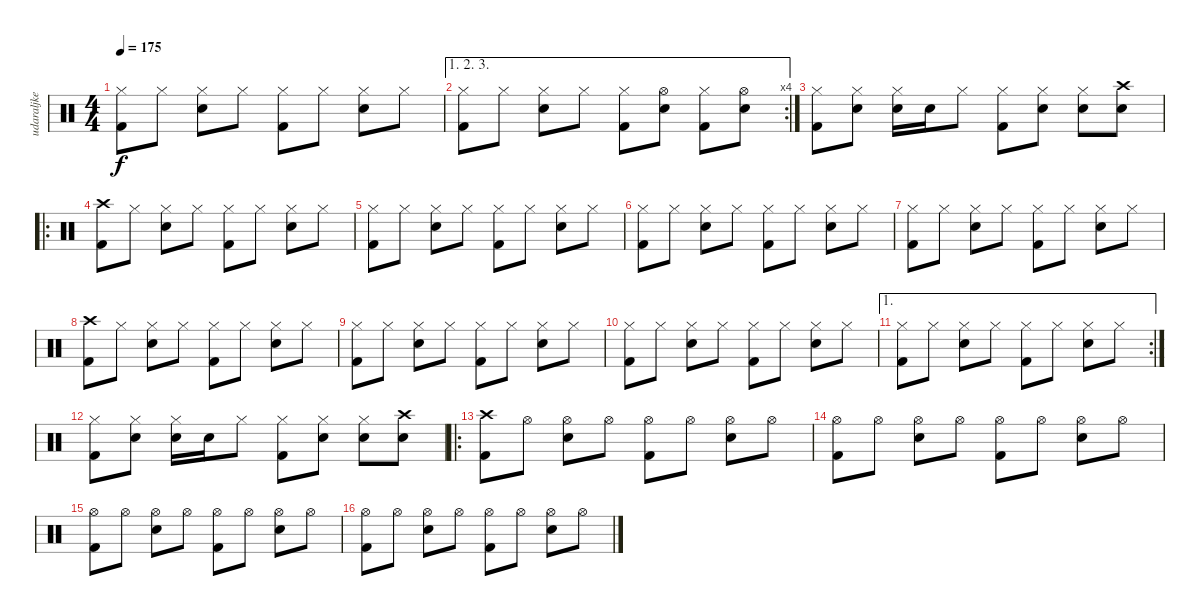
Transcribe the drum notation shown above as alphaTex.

\track ("udaraljke" "udaraljke") {instrument percussion}
\staff {score}
\articulation defaults
\ts (4 4)
\tempo 175
\clef neutral
\ks c
("Hi-Hat (closed)" "Kick (hit) 2").8{dy f} "Hi-Hat (closed)".8 ("Hi-Hat (closed)" "Snare (hit) 2").8 "Hi-Hat (closed)".8 ("Hi-Hat (closed)" "Kick (hit) 2").8 "Hi-Hat (closed)".8 ("Hi-Hat (closed)" "Snare (hit) 2").8 "Hi-Hat (closed)".8 |
\ae (1 2 3)
\rc 4
("Hi-Hat (closed)" "Kick (hit) 2").8 "Hi-Hat (closed)".8 ("Hi-Hat (closed)" "Snare (hit) 2").8 "Hi-Hat (closed)".8 ("Hi-Hat (closed)" "Kick (hit) 2").8 ("Hi-Hat (open)" "Snare (hit) 2").8 ("Hi-Hat (closed)" "Kick (hit) 2").8 ("Hi-Hat (open)" "Snare (hit) 2").8 |
("Hi-Hat (closed)" "Kick (hit) 2").8 ("Hi-Hat (closed)" "Snare (hit) 2").8 ("Hi-Hat (closed)" "Snare (hit) 2").16 "Snare (hit) 2".16 "Hi-Hat (closed)".8 ("Hi-Hat (closed)" "Kick (hit) 2").8 ("Hi-Hat (closed)" "Snare (hit) 2").8 ("Hi-Hat (closed)" "Snare (hit) 2").8 ("Crash high (hit)" "Snare (hit) 2").8 |
\ro
("Crash high (hit)" "Kick (hit) 2").8 "Hi-Hat (closed)".8 ("Hi-Hat (closed)" "Snare (hit) 2").8 "Hi-Hat (closed)".8 ("Hi-Hat (closed)" "Kick (hit) 2").8 "Hi-Hat (closed)".8 ("Hi-Hat (closed)" "Snare (hit) 2").8 "Hi-Hat (closed)".8 |
("Hi-Hat (closed)" "Kick (hit) 2").8 "Hi-Hat (closed)".8 ("Hi-Hat (closed)" "Snare (hit) 2").8 "Hi-Hat (closed)".8 ("Hi-Hat (closed)" "Kick (hit) 2").8 "Hi-Hat (closed)".8 ("Hi-Hat (closed)" "Snare (hit) 2").8 "Hi-Hat (closed)".8 |
("Hi-Hat (closed)" "Kick (hit) 2").8 "Hi-Hat (closed)".8 ("Hi-Hat (closed)" "Snare (hit) 2").8 "Hi-Hat (closed)".8 ("Hi-Hat (closed)" "Kick (hit) 2").8 "Hi-Hat (closed)".8 ("Hi-Hat (closed)" "Snare (hit) 2").8 "Hi-Hat (closed)".8 |
("Hi-Hat (closed)" "Kick (hit) 2").8 "Hi-Hat (closed)".8 ("Hi-Hat (closed)" "Snare (hit) 2").8 "Hi-Hat (closed)".8 ("Hi-Hat (closed)" "Kick (hit) 2").8 "Hi-Hat (closed)".8 ("Hi-Hat (closed)" "Snare (hit) 2").8 "Hi-Hat (closed)".8 |
("Crash high (hit)" "Kick (hit) 2").8 "Hi-Hat (closed)".8 ("Hi-Hat (closed)" "Snare (hit) 2").8 "Hi-Hat (closed)".8 ("Hi-Hat (closed)" "Kick (hit) 2").8 "Hi-Hat (closed)".8 ("Hi-Hat (closed)" "Snare (hit) 2").8 "Hi-Hat (closed)".8 |
("Hi-Hat (closed)" "Kick (hit) 2").8 "Hi-Hat (closed)".8 ("Hi-Hat (closed)" "Snare (hit) 2").8 "Hi-Hat (closed)".8 ("Hi-Hat (closed)" "Kick (hit) 2").8 "Hi-Hat (closed)".8 ("Hi-Hat (closed)" "Snare (hit) 2").8 "Hi-Hat (closed)".8 |
("Hi-Hat (closed)" "Kick (hit) 2").8 "Hi-Hat (closed)".8 ("Hi-Hat (closed)" "Snare (hit) 2").8 "Hi-Hat (closed)".8 ("Hi-Hat (closed)" "Kick (hit) 2").8 "Hi-Hat (closed)".8 ("Hi-Hat (closed)" "Snare (hit) 2").8 "Hi-Hat (closed)".8 |
\ae 1
\rc 2
("Hi-Hat (closed)" "Kick (hit) 2").8 "Hi-Hat (closed)".8 ("Hi-Hat (closed)" "Snare (hit) 2").8 "Hi-Hat (closed)".8 ("Hi-Hat (closed)" "Kick (hit) 2").8 "Hi-Hat (closed)".8 ("Hi-Hat (closed)" "Snare (hit) 2").8 "Hi-Hat (closed)".8 |
("Hi-Hat (closed)" "Kick (hit) 2").8 ("Hi-Hat (closed)" "Snare (hit) 2").8 ("Hi-Hat (closed)" "Snare (hit) 2").16 "Snare (hit) 2".16 "Hi-Hat (closed)".8 ("Hi-Hat (closed)" "Kick (hit) 2").8 ("Hi-Hat (closed)" "Snare (hit) 2").8 ("Hi-Hat (closed)" "Snare (hit) 2").8 ("Crash high (hit)" "Snare (hit) 2").8 |
\ro
("Crash high (hit)" "Kick (hit) 2").8 "Hi-Hat (open)".8 ("Hi-Hat (open)" "Snare (hit) 2").8 "Hi-Hat (open)".8 ("Hi-Hat (open)" "Kick (hit) 2").8 "Hi-Hat (open)".8 ("Hi-Hat (open)" "Snare (hit) 2").8 "Hi-Hat (open)".8 |
("Hi-Hat (open)" "Kick (hit) 2").8 "Hi-Hat (open)".8 ("Hi-Hat (open)" "Snare (hit) 2").8 "Hi-Hat (open)".8 ("Hi-Hat (open)" "Kick (hit) 2").8 "Hi-Hat (open)".8 ("Hi-Hat (open)" "Snare (hit) 2").8 "Hi-Hat (open)".8 |
("Hi-Hat (open)" "Kick (hit) 2").8 "Hi-Hat (open)".8 ("Hi-Hat (open)" "Snare (hit) 2").8 "Hi-Hat (open)".8 ("Hi-Hat (open)" "Kick (hit) 2").8 "Hi-Hat (open)".8 ("Hi-Hat (open)" "Snare (hit) 2").8 "Hi-Hat (open)".8 |
("Hi-Hat (open)" "Kick (hit) 2").8 "Hi-Hat (open)".8 ("Hi-Hat (open)" "Snare (hit) 2").8 "Hi-Hat (open)".8 ("Hi-Hat (open)" "Kick (hit) 2").8 "Hi-Hat (open)".8 ("Hi-Hat (open)" "Snare (hit) 2").8 "Hi-Hat (open)".8
